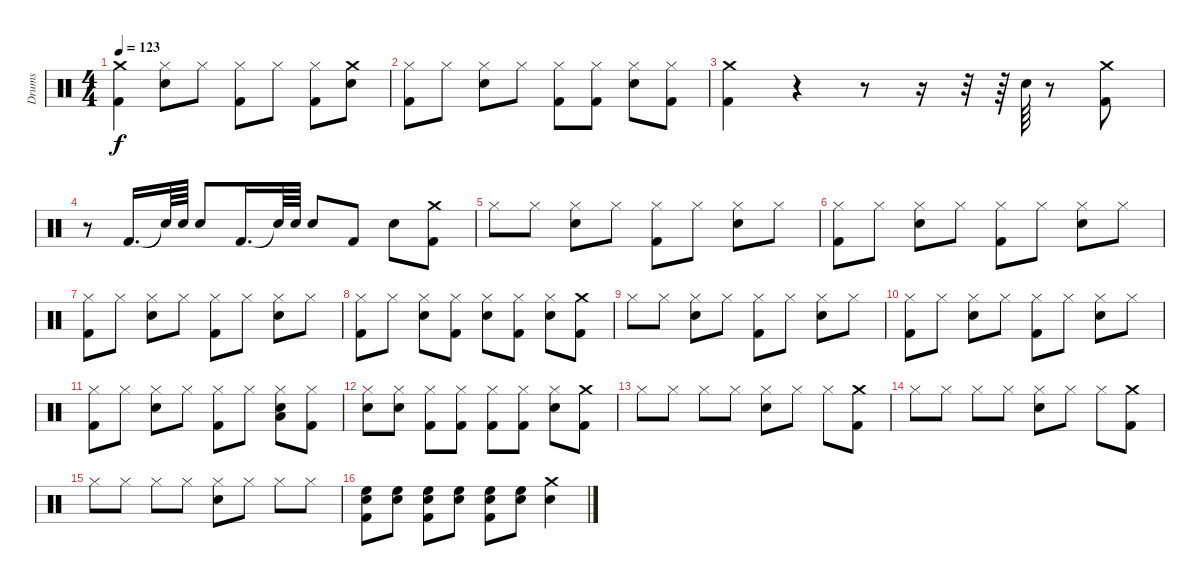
\track ("Drums" "Drums") {instrument percussion}
\staff {score}
\articulation defaults
\ts (4 4)
\tempo 123
\clef neutral
\ks c
("Kick (hit) 2" "Crash medium (hit)").4{dy f} ("Hi-Hat (closed)" "Snare (hit) 2").8 "Hi-Hat (closed)".8 ("Kick (hit) 2" "Hi-Hat (closed)").8 "Hi-Hat (closed)".8 ("Kick (hit) 2" "Hi-Hat (closed)").8 ("Crash medium (hit)" "Snare (hit) 2").8 |
("Kick (hit) 2" "Hi-Hat (closed)").8 "Hi-Hat (closed)".8 ("Snare (hit) 2" "Hi-Hat (closed)").8 "Hi-Hat (closed)".8 ("Kick (hit) 2" "Hi-Hat (closed)").8 ("Kick (hit) 2" "Hi-Hat (closed)").8 ("Snare (hit) 2" "Hi-Hat (closed)").8 ("Kick (hit) 2" "Hi-Hat (closed)").8 |
("Kick (hit) 2" "Crash medium (hit)").4 r.4 r.8 r.16 r.32 r.64 "Snare (hit) 2".64 r.8 ("Kick (hit) 2" "Crash medium (hit)").8 |
r.8 "Kick (hit) 2".16{d} "Snare (hit)"{t}.64 "Snare (hit) 2".64 "Snare (hit) 2".8 "Kick (hit) 2".16{d} "Snare (hit)"{t}.64 "Snare (hit) 2".64 "Snare (hit) 2".8 "Kick (hit) 2".8 "Snare (hit) 2".8 ("Crash medium (hit)" "Kick (hit) 2").8 |
"Hi-Hat (closed)".8 "Hi-Hat (closed)".8 ("Snare (hit) 2" "Hi-Hat (closed)").8 "Hi-Hat (closed)".8 ("Kick (hit) 2" "Hi-Hat (closed)").8 "Hi-Hat (closed)".8 ("Snare (hit) 2" "Hi-Hat (closed)").8 "Hi-Hat (closed)".8 |
("Kick (hit) 2" "Hi-Hat (closed)").8 "Hi-Hat (closed)".8 ("Snare (hit) 2" "Hi-Hat (closed)").8 "Hi-Hat (closed)".8 ("Kick (hit) 2" "Hi-Hat (closed)").8 "Hi-Hat (closed)".8 ("Snare (hit) 2" "Hi-Hat (closed)").8 "Hi-Hat (closed)".8 |
("Kick (hit) 2" "Hi-Hat (closed)").8 "Hi-Hat (closed)".8 ("Snare (hit) 2" "Hi-Hat (closed)").8 "Hi-Hat (closed)".8 ("Kick (hit) 2" "Hi-Hat (closed)").8 "Hi-Hat (closed)".8 ("Snare (hit) 2" "Hi-Hat (closed)").8 "Hi-Hat (closed)".8 |
("Hi-Hat (closed)" "Kick (hit) 2").8 "Hi-Hat (closed)".8 ("Snare (hit) 2" "Hi-Hat (closed)").8 ("Kick (hit) 2" "Hi-Hat (closed)").8 ("Snare (hit) 2" "Hi-Hat (closed)").8 ("Hi-Hat (closed)" "Kick (hit) 2").8 ("Snare (hit) 2" "Hi-Hat (closed)").8 ("Crash medium (hit)" "Kick (hit) 2").8 |
"Hi-Hat (closed)".8 "Hi-Hat (closed)".8 ("Snare (hit) 2" "Hi-Hat (closed)").8 "Hi-Hat (closed)".8 ("Kick (hit) 2" "Hi-Hat (closed)").8 "Hi-Hat (closed)".8 ("Snare (hit) 2" "Hi-Hat (closed)").8 "Hi-Hat (closed)".8 |
("Kick (hit) 2" "Hi-Hat (closed)").8 "Hi-Hat (closed)".8 ("Snare (hit) 2" "Hi-Hat (closed)").8 "Hi-Hat (closed)".8 ("Kick (hit) 2" "Hi-Hat (closed)").8 "Hi-Hat (closed)".8 ("Snare (hit) 2" "Hi-Hat (closed)").8 "Hi-Hat (closed)".8 |
("Kick (hit) 2" "Hi-Hat (closed)").8 "Hi-Hat (closed)".8 ("Snare (hit) 2" "Hi-Hat (closed)").8 "Hi-Hat (closed)".8 ("Kick (hit) 2" "Hi-Hat (closed)").8 "Hi-Hat (closed)".8 ("Low Tom (hit)" "Snare (hit) 2" "Hi-Hat (closed)").8 ("Kick (hit) 2" "Hi-Hat (closed)").8 |
("Snare (hit) 2" "Hi-Hat (closed)").8 ("Snare (hit) 2" "Hi-Hat (closed)").8 ("Kick (hit) 2" "Hi-Hat (closed)").8 ("Kick (hit) 2" "Hi-Hat (closed)").8 ("Hi-Hat (closed)" "Kick (hit) 2").8 ("Hi-Hat (closed)" "Kick (hit) 2").8 ("Snare (hit) 2" "Hi-Hat (closed)").8 ("Crash medium (hit)" "Kick (hit) 2").8 |
"Hi-Hat (closed)".8 "Hi-Hat (closed)".8 "Hi-Hat (closed)".8 "Hi-Hat (closed)".8 ("Snare (hit) 2" "Hi-Hat (closed)").8 "Hi-Hat (closed)".8 "Hi-Hat (closed)".8 ("Kick (hit) 2" "Crash medium (hit)").8 |
"Hi-Hat (closed)".8 "Hi-Hat (closed)".8 "Hi-Hat (closed)".8 "Hi-Hat (closed)".8 ("Snare (hit) 2" "Hi-Hat (closed)").8 "Hi-Hat (closed)".8 "Hi-Hat (closed)".8 ("Kick (hit) 2" "Crash medium (hit)").8 |
"Hi-Hat (closed)".8 "Hi-Hat (closed)".8 "Hi-Hat (closed)".8 "Hi-Hat (closed)".8 ("Snare (hit) 2" "Hi-Hat (closed)").8 "Hi-Hat (closed)".8 "Hi-Hat (closed)".8 "Hi-Hat (closed)".8 |
("Kick (hit) 2" "High Floor Tom (hit)" "Snare (hit) 2").8 ("High Floor Tom (hit)" "Snare (hit) 2").8 ("Kick (hit) 2" "High Floor Tom (hit)" "Snare (hit) 2").8 ("High Floor Tom (hit)" "Snare (hit) 2").8 ("Kick (hit) 2" "High Floor Tom (hit)" "Snare (hit) 2").8 ("High Floor Tom (hit)" "Snare (hit) 2").8 ("Crash medium (hit)" "Snare (hit) 2").4
